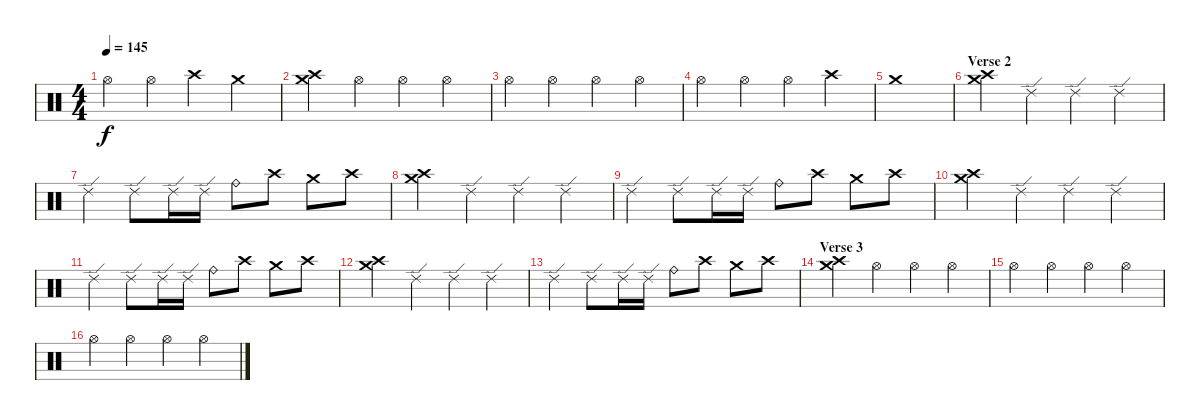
\track "" {instrument percussion}
\staff {score}
\articulation defaults
\ts (4 4)
\tempo 145
\clef neutral
\ks c "Hi-Hat (open)".4{dy f} "Hi-Hat (open)".4 "Crash high (hit)".4 "Crash medium (hit)".4
|
("Crash medium (hit)" "Crash high (hit)").4 "Hi-Hat (open)".4 "Hi-Hat (open)".4 "Hi-Hat (open)".4 |
"Hi-Hat (open)".4 "Hi-Hat (open)".4 "Hi-Hat (open)".4 "Hi-Hat (open)".4 |
"Hi-Hat (open)".4 "Hi-Hat (open)".4 "Hi-Hat (open)".4 "Crash high (hit)".4 |
"Crash medium (hit)".1 |
\section ("" "Verse 2")
("Crash medium (hit)" "Crash high (hit)").4 "Ride (edge) 2".4 "Ride (edge) 2".4 "Ride (edge) 2".4 |
"Ride (edge) 2".4 "Ride (edge) 2".8 "Ride (edge) 2".16 "Ride (edge) 2".16 "Ride (bell)".8 "Crash high (hit)".8 "Crash medium (hit)".8 "Crash high (hit)".8 |
("Crash medium (hit)" "Crash high (hit)").4 "Ride (edge) 2".4 "Ride (edge) 2".4 "Ride (edge) 2".4 |
"Ride (edge) 2".4 "Ride (edge) 2".8 "Ride (edge) 2".16 "Ride (edge) 2".16 "Ride (bell)".8 "Crash high (hit)".8 "Crash medium (hit)".8 "Crash high (hit)".8 |
("Crash medium (hit)" "Crash high (hit)").4 "Ride (edge) 2".4 "Ride (edge) 2".4 "Ride (edge) 2".4 |
"Ride (edge) 2".4 "Ride (edge) 2".8 "Ride (edge) 2".16 "Ride (edge) 2".16 "Ride (bell)".8 "Crash high (hit)".8 "Crash medium (hit)".8 "Crash high (hit)".8 |
("Crash medium (hit)" "Crash high (hit)").4 "Ride (edge) 2".4 "Ride (edge) 2".4 "Ride (edge) 2".4 |
"Ride (edge) 2".4 "Ride (edge) 2".8 "Ride (edge) 2".16 "Ride (edge) 2".16 "Ride (bell)".8 "Crash high (hit)".8 "Crash medium (hit)".8 "Crash high (hit)".8 |
\section ("" "Verse 3")
("Crash medium (hit)" "Crash high (hit)").4 "Hi-Hat (open)".4 "Hi-Hat (open)".4 "Hi-Hat (open)".4 |
"Hi-Hat (open)".4 "Hi-Hat (open)".4 "Hi-Hat (open)".4 "Hi-Hat (open)".4 |
"Hi-Hat (open)".4 "Hi-Hat (open)".4 "Hi-Hat (open)".4 "Hi-Hat (open)".4
